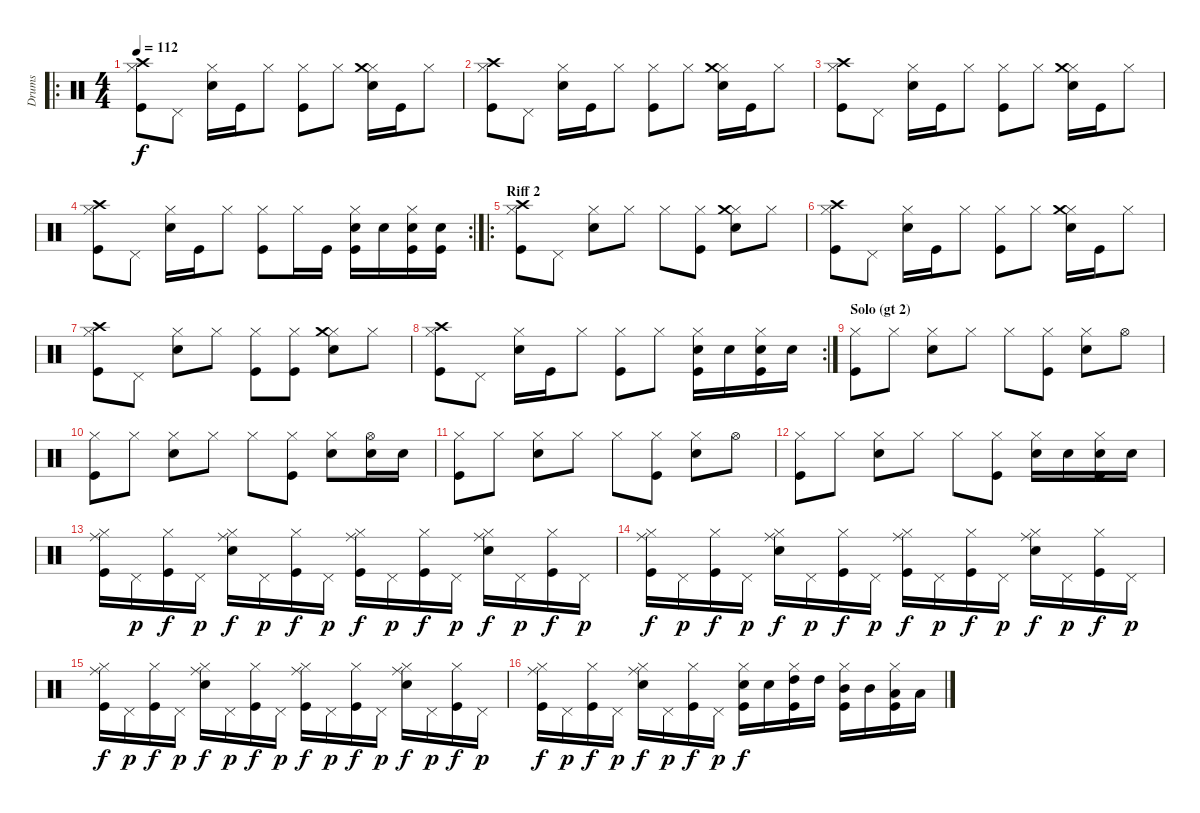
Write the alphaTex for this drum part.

\track ("Drums" "Drums") {instrument percussion}
\staff {score}
\articulation defaults
\ro
\ts (4 4)
\tempo 112
\clef neutral
\ks c
("Hi-Hat (closed)" "Crash high (hit)" "Kick (hit)").8{dy f} "Pedal Hi-Hat (hit)".8 ("Hi-Hat (closed)" "Electric Snare (hit)").16 "Kick (hit)".16 "Hi-Hat (closed)".8 ("Hi-Hat (closed)" "Kick (hit)").8 "Hi-Hat (closed)".8 ("Hi-Hat (closed)" "Crash medium (hit)" "Electric Snare (hit)").16 "Kick (hit)".16 "Hi-Hat (closed)".8 |
("Hi-Hat (closed)" "Crash high (hit)" "Kick (hit)").8 "Pedal Hi-Hat (hit)".8 ("Hi-Hat (closed)" "Electric Snare (hit)").16 "Kick (hit)".16 "Hi-Hat (closed)".8 ("Hi-Hat (closed)" "Kick (hit)").8 "Hi-Hat (closed)".8 ("Hi-Hat (closed)" "Crash medium (hit)" "Electric Snare (hit)").16 "Kick (hit)".16 "Hi-Hat (closed)".8 |
("Hi-Hat (closed)" "Crash high (hit)" "Kick (hit)").8 "Pedal Hi-Hat (hit)".8 ("Hi-Hat (closed)" "Electric Snare (hit)").16 "Kick (hit)".16 "Hi-Hat (closed)".8 ("Hi-Hat (closed)" "Kick (hit)").8 "Hi-Hat (closed)".8 ("Hi-Hat (closed)" "Crash medium (hit)" "Electric Snare (hit)").16 "Kick (hit)".16 "Hi-Hat (closed)".8 |
\rc 2
("Hi-Hat (closed)" "Crash high (hit)" "Kick (hit)").8 "Pedal Hi-Hat (hit)".8 ("Hi-Hat (closed)" "Electric Snare (hit)").16 "Kick (hit)".16 "Hi-Hat (closed)".8 ("Hi-Hat (closed)" "Kick (hit)").8 "Hi-Hat (closed)".16 "Kick (hit)".16 ("Hi-Hat (closed)" "Electric Snare (hit)" "Kick (hit)").16 "Electric Snare (hit)".16 ("Hi-Hat (closed)" "Electric Snare (hit)" "Kick (hit)").16 ("Electric Snare (hit)" "Kick (hit)").16 |
\ro
\section ("" "Riff 2")
("Hi-Hat (closed)" "Crash high (hit)" "Kick (hit)").8 "Pedal Hi-Hat (hit)".8 ("Hi-Hat (closed)" "Electric Snare (hit)").8 "Hi-Hat (closed)".8 "Hi-Hat (closed)".8 ("Hi-Hat (closed)" "Kick (hit)").8 ("Hi-Hat (closed)" "Crash medium (hit)" "Electric Snare (hit)").8 "Hi-Hat (closed)".8 |
("Hi-Hat (closed)" "Crash high (hit)" "Kick (hit)").8 "Pedal Hi-Hat (hit)".8 ("Hi-Hat (closed)" "Electric Snare (hit)").16 "Kick (hit)".16 "Hi-Hat (closed)".8 ("Hi-Hat (closed)" "Kick (hit)").8 "Hi-Hat (closed)".8 ("Hi-Hat (closed)" "Crash medium (hit)" "Electric Snare (hit)").16 "Kick (hit)".16 "Hi-Hat (closed)".8 |
("Hi-Hat (closed)" "Crash high (hit)" "Kick (hit)").8 "Pedal Hi-Hat (hit)".8 ("Hi-Hat (closed)" "Electric Snare (hit)").8 "Hi-Hat (closed)".8 ("Hi-Hat (closed)" "Kick (hit)").8 ("Hi-Hat (closed)" "Kick (hit)").8 ("Hi-Hat (closed)" "Crash medium (hit)" "Electric Snare (hit)").8 "Hi-Hat (closed)".8 |
\rc 2
("Hi-Hat (closed)" "Crash high (hit)" "Kick (hit)").8 "Pedal Hi-Hat (hit)".8 ("Hi-Hat (closed)" "Electric Snare (hit)").16 "Kick (hit)".16 "Hi-Hat (closed)".8 ("Hi-Hat (closed)" "Kick (hit)").8 "Hi-Hat (closed)".8 ("Hi-Hat (closed)" "Electric Snare (hit)" "Kick (hit)").16 "Electric Snare (hit)".16 ("Hi-Hat (closed)" "Electric Snare (hit)" "Kick (hit)").16 "Electric Snare (hit)".16 |
\section ("" "Solo (gt 2)")
("Hi-Hat (closed)" "Kick (hit)").8 "Hi-Hat (closed)".8 ("Hi-Hat (closed)" "Electric Snare (hit)").8 "Hi-Hat (closed)".8 "Hi-Hat (closed)".8 ("Hi-Hat (closed)" "Kick (hit)").8 ("Hi-Hat (closed)" "Electric Snare (hit)").8 "Hi-Hat (open)".8 |
("Hi-Hat (closed)" "Kick (hit)").8 "Hi-Hat (closed)".8 ("Hi-Hat (closed)" "Electric Snare (hit)").8 "Hi-Hat (closed)".8 "Hi-Hat (closed)".8 ("Hi-Hat (closed)" "Kick (hit)").8 ("Hi-Hat (closed)" "Electric Snare (hit)").8 ("Hi-Hat (open)" "Electric Snare (hit)").16 "Electric Snare (hit)".16 |
("Hi-Hat (closed)" "Kick (hit)").8 "Hi-Hat (closed)".8 ("Hi-Hat (closed)" "Electric Snare (hit)").8 "Hi-Hat (closed)".8 "Hi-Hat (closed)".8 ("Hi-Hat (closed)" "Kick (hit)").8 ("Hi-Hat (closed)" "Electric Snare (hit)").8 "Hi-Hat (open)".8 |
("Hi-Hat (closed)" "Kick (hit)").8 "Hi-Hat (closed)".8 ("Hi-Hat (closed)" "Electric Snare (hit)").8 "Hi-Hat (closed)".8 "Hi-Hat (closed)".8 ("Hi-Hat (closed)" "Kick (hit)").8 ("Hi-Hat (closed)" "Electric Snare (hit)").16 "Electric Snare (hit)".16 ("Hi-Hat (closed)" "Electric Snare (hit)" "Kick (hit)").16 "Electric Snare (hit)".16 |
("Hi-Hat (closed)" "Ride (middle)" "Kick (hit)").16 "Pedal Hi-Hat (hit)".16{dy p} ("Hi-Hat (closed)" "Kick (hit)").16{dy f} "Pedal Hi-Hat (hit)".16{dy p} ("Hi-Hat (closed)" "Ride (middle)" "Electric Snare (hit)").16{dy f} "Pedal Hi-Hat (hit)".16{dy p} ("Hi-Hat (closed)" "Kick (hit)").16{dy f} "Pedal Hi-Hat (hit)".16{dy p} ("Hi-Hat (closed)" "Ride (middle)" "Kick (hit)").16{dy f} "Pedal Hi-Hat (hit)".16{dy p} ("Hi-Hat (closed)" "Kick (hit)").16{dy f} "Pedal Hi-Hat (hit)".16{dy p} ("Hi-Hat (closed)" "Ride (middle)" "Electric Snare (hit)").16{dy f} "Pedal Hi-Hat (hit)".16{dy p} ("Hi-Hat (closed)" "Kick (hit)").16{dy f} "Pedal Hi-Hat (hit)".16{dy p} |
("Hi-Hat (closed)" "Ride (middle)" "Kick (hit)").16{dy f} "Pedal Hi-Hat (hit)".16{dy p} ("Hi-Hat (closed)" "Kick (hit)").16{dy f} "Pedal Hi-Hat (hit)".16{dy p} ("Hi-Hat (closed)" "Ride (middle)" "Electric Snare (hit)").16{dy f} "Pedal Hi-Hat (hit)".16{dy p} ("Hi-Hat (closed)" "Kick (hit)").16{dy f} "Pedal Hi-Hat (hit)".16{dy p} ("Hi-Hat (closed)" "Ride (middle)" "Kick (hit)").16{dy f} "Pedal Hi-Hat (hit)".16{dy p} ("Hi-Hat (closed)" "Kick (hit)").16{dy f} "Pedal Hi-Hat (hit)".16{dy p} ("Hi-Hat (closed)" "Ride (middle)" "Electric Snare (hit)").16{dy f} "Pedal Hi-Hat (hit)".16{dy p} ("Hi-Hat (closed)" "Kick (hit)").16{dy f} "Pedal Hi-Hat (hit)".16{dy p} |
("Hi-Hat (closed)" "Ride (middle)" "Kick (hit)").16{dy f} "Pedal Hi-Hat (hit)".16{dy p} ("Hi-Hat (closed)" "Kick (hit)").16{dy f} "Pedal Hi-Hat (hit)".16{dy p} ("Hi-Hat (closed)" "Ride (middle)" "Electric Snare (hit)").16{dy f} "Pedal Hi-Hat (hit)".16{dy p} ("Hi-Hat (closed)" "Kick (hit)").16{dy f} "Pedal Hi-Hat (hit)".16{dy p} ("Hi-Hat (closed)" "Ride (middle)" "Kick (hit)").16{dy f} "Pedal Hi-Hat (hit)".16{dy p} ("Hi-Hat (closed)" "Kick (hit)").16{dy f} "Pedal Hi-Hat (hit)".16{dy p} ("Hi-Hat (closed)" "Ride (middle)" "Electric Snare (hit)").16{dy f} "Pedal Hi-Hat (hit)".16{dy p} ("Hi-Hat (closed)" "Kick (hit)").16{dy f} "Pedal Hi-Hat (hit)".16{dy p} |
("Hi-Hat (closed)" "Ride (middle)" "Kick (hit)").16{dy f} "Pedal Hi-Hat (hit)".16{dy p} ("Hi-Hat (closed)" "Kick (hit)").16{dy f} "Pedal Hi-Hat (hit)".16{dy p} ("Hi-Hat (closed)" "Ride (middle)" "Electric Snare (hit)").16{dy f} "Pedal Hi-Hat (hit)".16{dy p} ("Hi-Hat (closed)" "Kick (hit)").16{dy f} "Pedal Hi-Hat (hit)".16{dy p} ("Hi-Hat (closed)" "Electric Snare (hit)" "Kick (hit)").16{dy f} "Electric Snare (hit)".16 ("Hi-Hat (closed)" "High Tom (hit)" "Kick (hit)").16 "High Tom (hit)".16 ("Hi-Hat (closed)" "Mid Tom (hit)" "Kick (hit)").16 "Mid Tom (hit)".16 ("Hi-Hat (closed)" "Low Tom (hit)" "Kick (hit)").16 "Low Tom (hit)".16
